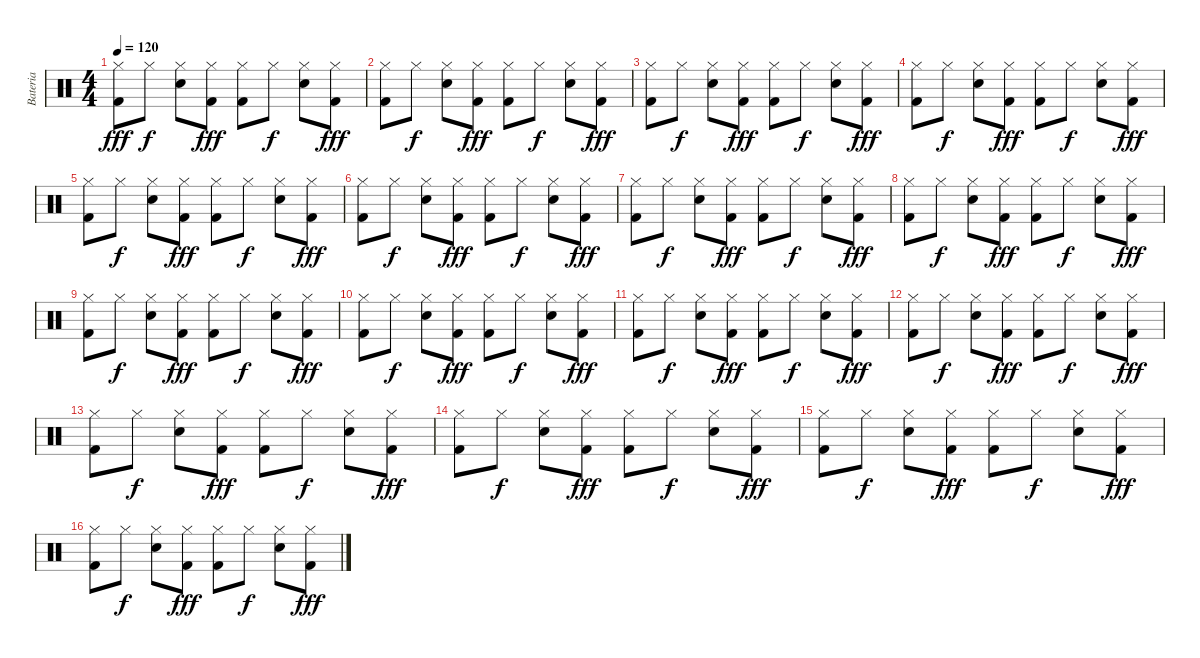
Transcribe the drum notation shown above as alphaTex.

\track ("Bateria" "Bateria") {instrument percussion}
\staff {score}
\articulation defaults
\ts (4 4)
\tempo 120
\clef neutral
\ks c
("Hi-Hat (closed)" "Kick (hit) 2").8{dy fff} "Hi-Hat (closed)".8{dy f} ("Hi-Hat (closed)" "Snare (hit) 2").8 ("Hi-Hat (closed)" "Kick (hit) 2").8{dy fff} ("Hi-Hat (closed)" "Kick (hit) 2").8 "Hi-Hat (closed)".8{dy f} ("Hi-Hat (closed)" "Snare (hit) 2").8 ("Hi-Hat (closed)" "Kick (hit) 2").8{dy fff} |
("Hi-Hat (closed)" "Kick (hit) 2").8 "Hi-Hat (closed)".8{dy f} ("Hi-Hat (closed)" "Snare (hit) 2").8 ("Hi-Hat (closed)" "Kick (hit) 2").8{dy fff} ("Hi-Hat (closed)" "Kick (hit) 2").8 "Hi-Hat (closed)".8{dy f} ("Hi-Hat (closed)" "Snare (hit) 2").8 ("Hi-Hat (closed)" "Kick (hit) 2").8{dy fff} |
("Hi-Hat (closed)" "Kick (hit) 2").8 "Hi-Hat (closed)".8{dy f} ("Hi-Hat (closed)" "Snare (hit) 2").8 ("Hi-Hat (closed)" "Kick (hit) 2").8{dy fff} ("Hi-Hat (closed)" "Kick (hit) 2").8 "Hi-Hat (closed)".8{dy f} ("Hi-Hat (closed)" "Snare (hit) 2").8 ("Hi-Hat (closed)" "Kick (hit) 2").8{dy fff} |
("Hi-Hat (closed)" "Kick (hit) 2").8 "Hi-Hat (closed)".8{dy f} ("Hi-Hat (closed)" "Snare (hit) 2").8 ("Hi-Hat (closed)" "Kick (hit) 2").8{dy fff} ("Hi-Hat (closed)" "Kick (hit) 2").8 "Hi-Hat (closed)".8{dy f} ("Hi-Hat (closed)" "Snare (hit) 2").8 ("Hi-Hat (closed)" "Kick (hit) 2").8{dy fff} |
("Hi-Hat (closed)" "Kick (hit) 2").8 "Hi-Hat (closed)".8{dy f} ("Hi-Hat (closed)" "Snare (hit) 2").8 ("Hi-Hat (closed)" "Kick (hit) 2").8{dy fff} ("Hi-Hat (closed)" "Kick (hit) 2").8 "Hi-Hat (closed)".8{dy f} ("Hi-Hat (closed)" "Snare (hit) 2").8 ("Hi-Hat (closed)" "Kick (hit) 2").8{dy fff} |
("Hi-Hat (closed)" "Kick (hit) 2").8 "Hi-Hat (closed)".8{dy f} ("Hi-Hat (closed)" "Snare (hit) 2").8 ("Hi-Hat (closed)" "Kick (hit) 2").8{dy fff} ("Hi-Hat (closed)" "Kick (hit) 2").8 "Hi-Hat (closed)".8{dy f} ("Hi-Hat (closed)" "Snare (hit) 2").8 ("Hi-Hat (closed)" "Kick (hit) 2").8{dy fff} |
("Hi-Hat (closed)" "Kick (hit) 2").8 "Hi-Hat (closed)".8{dy f} ("Hi-Hat (closed)" "Snare (hit) 2").8 ("Hi-Hat (closed)" "Kick (hit) 2").8{dy fff} ("Hi-Hat (closed)" "Kick (hit) 2").8 "Hi-Hat (closed)".8{dy f} ("Hi-Hat (closed)" "Snare (hit) 2").8 ("Hi-Hat (closed)" "Kick (hit) 2").8{dy fff} |
("Hi-Hat (closed)" "Kick (hit) 2").8 "Hi-Hat (closed)".8{dy f} ("Hi-Hat (closed)" "Snare (hit) 2").8 ("Hi-Hat (closed)" "Kick (hit) 2").8{dy fff} ("Hi-Hat (closed)" "Kick (hit) 2").8 "Hi-Hat (closed)".8{dy f} ("Hi-Hat (closed)" "Snare (hit) 2").8 ("Hi-Hat (closed)" "Kick (hit) 2").8{dy fff} |
("Hi-Hat (closed)" "Kick (hit) 2").8 "Hi-Hat (closed)".8{dy f} ("Hi-Hat (closed)" "Snare (hit) 2").8 ("Hi-Hat (closed)" "Kick (hit) 2").8{dy fff} ("Hi-Hat (closed)" "Kick (hit) 2").8 "Hi-Hat (closed)".8{dy f} ("Hi-Hat (closed)" "Snare (hit) 2").8 ("Hi-Hat (closed)" "Kick (hit) 2").8{dy fff} |
("Hi-Hat (closed)" "Kick (hit) 2").8 "Hi-Hat (closed)".8{dy f} ("Hi-Hat (closed)" "Snare (hit) 2").8 ("Hi-Hat (closed)" "Kick (hit) 2").8{dy fff} ("Hi-Hat (closed)" "Kick (hit) 2").8 "Hi-Hat (closed)".8{dy f} ("Hi-Hat (closed)" "Snare (hit) 2").8 ("Hi-Hat (closed)" "Kick (hit) 2").8{dy fff} |
("Hi-Hat (closed)" "Kick (hit) 2").8 "Hi-Hat (closed)".8{dy f} ("Hi-Hat (closed)" "Snare (hit) 2").8 ("Hi-Hat (closed)" "Kick (hit) 2").8{dy fff} ("Hi-Hat (closed)" "Kick (hit) 2").8 "Hi-Hat (closed)".8{dy f} ("Hi-Hat (closed)" "Snare (hit) 2").8 ("Hi-Hat (closed)" "Kick (hit) 2").8{dy fff} |
("Hi-Hat (closed)" "Kick (hit) 2").8 "Hi-Hat (closed)".8{dy f} ("Hi-Hat (closed)" "Snare (hit) 2").8 ("Hi-Hat (closed)" "Kick (hit) 2").8{dy fff} ("Hi-Hat (closed)" "Kick (hit) 2").8 "Hi-Hat (closed)".8{dy f} ("Hi-Hat (closed)" "Snare (hit) 2").8 ("Hi-Hat (closed)" "Kick (hit) 2").8{dy fff} |
("Hi-Hat (closed)" "Kick (hit) 2").8 "Hi-Hat (closed)".8{dy f} ("Hi-Hat (closed)" "Snare (hit) 2").8 ("Hi-Hat (closed)" "Kick (hit) 2").8{dy fff} ("Hi-Hat (closed)" "Kick (hit) 2").8 "Hi-Hat (closed)".8{dy f} ("Hi-Hat (closed)" "Snare (hit) 2").8 ("Hi-Hat (closed)" "Kick (hit) 2").8{dy fff} |
("Hi-Hat (closed)" "Kick (hit) 2").8 "Hi-Hat (closed)".8{dy f} ("Hi-Hat (closed)" "Snare (hit) 2").8 ("Hi-Hat (closed)" "Kick (hit) 2").8{dy fff} ("Hi-Hat (closed)" "Kick (hit) 2").8 "Hi-Hat (closed)".8{dy f} ("Hi-Hat (closed)" "Snare (hit) 2").8 ("Hi-Hat (closed)" "Kick (hit) 2").8{dy fff} |
("Hi-Hat (closed)" "Kick (hit) 2").8 "Hi-Hat (closed)".8{dy f} ("Hi-Hat (closed)" "Snare (hit) 2").8 ("Hi-Hat (closed)" "Kick (hit) 2").8{dy fff} ("Hi-Hat (closed)" "Kick (hit) 2").8 "Hi-Hat (closed)".8{dy f} ("Hi-Hat (closed)" "Snare (hit) 2").8 ("Hi-Hat (closed)" "Kick (hit) 2").8{dy fff} |
("Hi-Hat (closed)" "Kick (hit) 2").8 "Hi-Hat (closed)".8{dy f} ("Hi-Hat (closed)" "Snare (hit) 2").8 ("Hi-Hat (closed)" "Kick (hit) 2").8{dy fff} ("Hi-Hat (closed)" "Kick (hit) 2").8 "Hi-Hat (closed)".8{dy f} ("Hi-Hat (closed)" "Snare (hit) 2").8 ("Hi-Hat (closed)" "Kick (hit) 2").8{dy fff}
